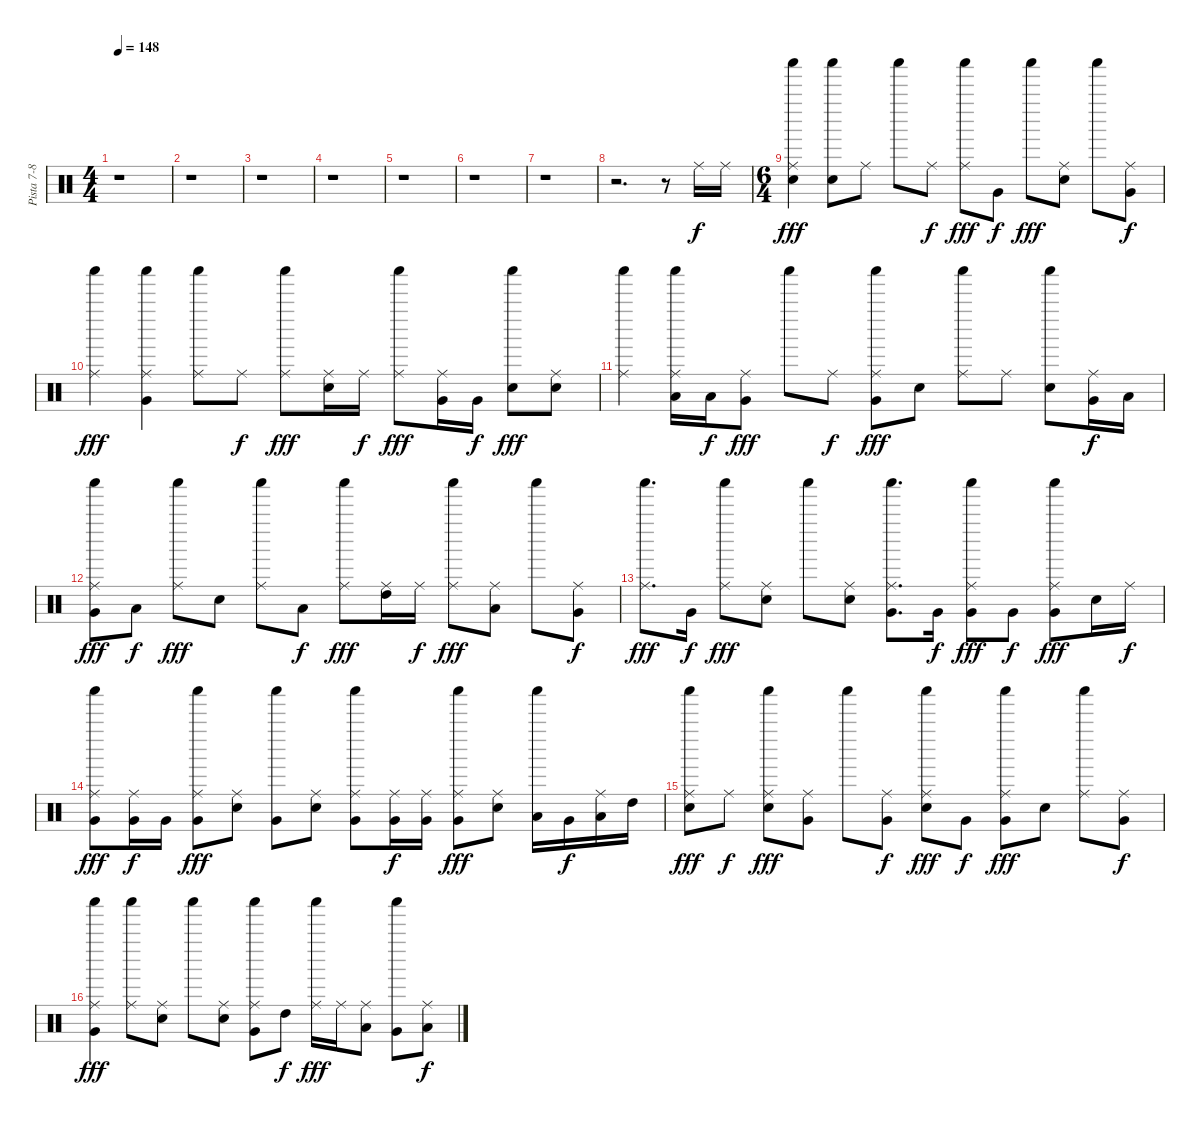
\track ("Pista 7-8" "Pista 7-8") {instrument percussion}
\staff {score}
\articulation defaults
\ts (4 4)
\tempo 148
\clef neutral
\ks c
r.1{dy mp} |
r.1 |
r.1 |
r.1 |
r.1 |
r.1 |
r.1 |
r.2{d} r.8 "Ride (middle)".16{dy f} "Ride (middle)".16 |
\ts (6 4)
("Shaker (hit)" "Electric Snare (hit)" "Ride (middle)").4{dy fff} ("Shaker (hit)" "Electric Snare (hit)").8 "Ride (middle)".8 "Shaker (hit)".8 "Ride (middle)".8{dy f} ("Shaker (hit)" "Ride (middle)").8{dy fff} "Very Low Tom (hit)".8{dy f} "Shaker (hit)".8{dy fff} ("Electric Snare (hit)" "Ride (middle)").8 "Shaker (hit)".8 ("Very Low Tom (hit)" "Ride (middle)").8{dy f} |
("Shaker (hit)" "Ride (middle)").4{dy fff} ("Shaker (hit)" "Very Low Tom (hit)" "Ride (middle)").4 ("Shaker (hit)" "Ride (middle)").8 "Ride (middle)".8{dy f} ("Shaker (hit)" "Ride (middle)").8{dy fff} ("Electric Snare (hit)" "Ride (middle)").16 "Ride (middle)".16{dy f} ("Shaker (hit)" "Ride (middle)").8{dy fff} ("Very Low Tom (hit)" "Ride (middle)").16 "Very Low Tom (hit)".16{dy f} ("Shaker (hit)" "Electric Snare (hit)").8{dy fff} ("Electric Snare (hit)" "Ride (middle)").8 |
("Shaker (hit)" "Ride (middle)").4 ("Shaker (hit)" "Low Tom (hit)" "Ride (middle)").16 "Low Tom (hit)".16{dy f} ("Very Low Tom (hit)" "Ride (middle)").8{dy fff} "Shaker (hit)".8 "Ride (middle)".8{dy f} ("Shaker (hit)" "Very Low Tom (hit)" "Ride (middle)").8{dy fff} "Electric Snare (hit)".8 ("Shaker (hit)" "Ride (middle)").8 "Ride (middle)".8 ("Shaker (hit)" "Electric Snare (hit)").8 ("Very Low Tom (hit)" "Ride (middle)").16{dy f} "Low Tom (hit)".16 |
("Shaker (hit)" "Very Low Tom (hit)" "Ride (middle)").8{dy fff} "Low Tom (hit)".8{dy f} ("Shaker (hit)" "Ride (middle)").8{dy fff} "Electric Snare (hit)".8 ("Shaker (hit)" "Ride (middle)").8 "Low Tom (hit)".8{dy f} ("Shaker (hit)" "Ride (middle)").8{dy fff} ("High Tom (hit)" "Ride (middle)").16 "Ride (middle)".16{dy f} ("Shaker (hit)" "Ride (middle)").8{dy fff} ("Low Tom (hit)" "Ride (middle)").8 "Shaker (hit)".8 ("Very Low Tom (hit)" "Ride (middle)").8{dy f} |
("Shaker (hit)" "Ride (middle)").8{d dy fff} "Very Low Tom (hit)".16{dy f} ("Shaker (hit)" "Ride (middle)").8{dy fff} ("Electric Snare (hit)" "Ride (middle)").8 "Shaker (hit)".8 ("Snare (hit) 2" "Ride (middle)").8 ("Shaker (hit)" "Very Low Tom (hit)" "Ride (middle)").8{d} "Very Low Tom (hit)".16{dy f} ("Shaker (hit)" "Very Low Tom (hit)" "Ride (middle)").8{dy fff} "Very Low Tom (hit)".8{dy f} ("Shaker (hit)" "Very Low Tom (hit)" "Ride (middle)").8{dy fff} "Snare (hit) 2".16 "Ride (middle)".16{dy f} |
("Shaker (hit)" "Very Low Tom (hit)" "Ride (middle)").8{dy fff} ("Very Low Tom (hit)" "Ride (middle)").16{dy f} "Very Low Tom (hit)".16 ("Shaker (hit)" "Very Low Tom (hit)" "Ride (middle)").8{dy fff} ("Electric Snare (hit)" "Ride (middle)").8 ("Shaker (hit)" "Very Low Tom (hit)").8 ("Snare (hit) 2" "Ride (middle)").8 ("Shaker (hit)" "Very Low Tom (hit)" "Ride (middle)").8 ("Very Low Tom (hit)" "Ride (middle)").16{dy f} ("Very Low Tom (hit)" "Ride (middle)").16 ("Shaker (hit)" "Very Low Tom (hit)" "Ride (middle)").8{dy fff} ("Electric Snare (hit)" "Ride (middle)").8 ("Shaker (hit)" "Low Floor Tom (hit)").16 "Very Low Tom (hit)".16{dy f} ("Low Tom (hit)" "Ride (middle)").16 "High Tom (hit)".16 |
("Shaker (hit)" "Electric Snare (hit)" "Ride (middle)").8{dy fff} "Ride (middle)".8{dy f} ("Shaker (hit)" "Snare (hit) 2" "Ride (middle)").8{dy fff} ("Very Low Tom (hit)" "Ride (middle)").8 "Shaker (hit)".8 ("Very Low Tom (hit)" "Ride (middle)").8{dy f} ("Shaker (hit)" "Electric Snare (hit)" "Ride (middle)").8{dy fff} "Very Low Tom (hit)".8{dy f} ("Shaker (hit)" "Very Low Tom (hit)" "Ride (middle)").8{dy fff} "Snare (hit) 2".8 ("Shaker (hit)" "Ride (middle)").8 ("Very Low Tom (hit)" "Ride (middle)").8{dy f} |
("Shaker (hit)" "Very Low Tom (hit)" "Ride (middle)").4{dy fff} ("Shaker (hit)" "Ride (middle)").8 ("Electric Snare (hit)" "Ride (middle)").8 "Shaker (hit)".8 ("Snare (hit) 2" "Ride (middle)").8 ("Shaker (hit)" "Very Low Tom (hit)" "Ride (middle)").8 "High Tom (hit)".8{dy f} ("Shaker (hit)" "Ride (middle)").16{dy fff} "Ride (middle)".16 ("Low Tom (hit)" "Ride (middle)").8 ("Shaker (hit)" "Very Low Tom (hit)").8 ("Low Floor Tom (hit)" "Ride (middle)").8{dy f}
